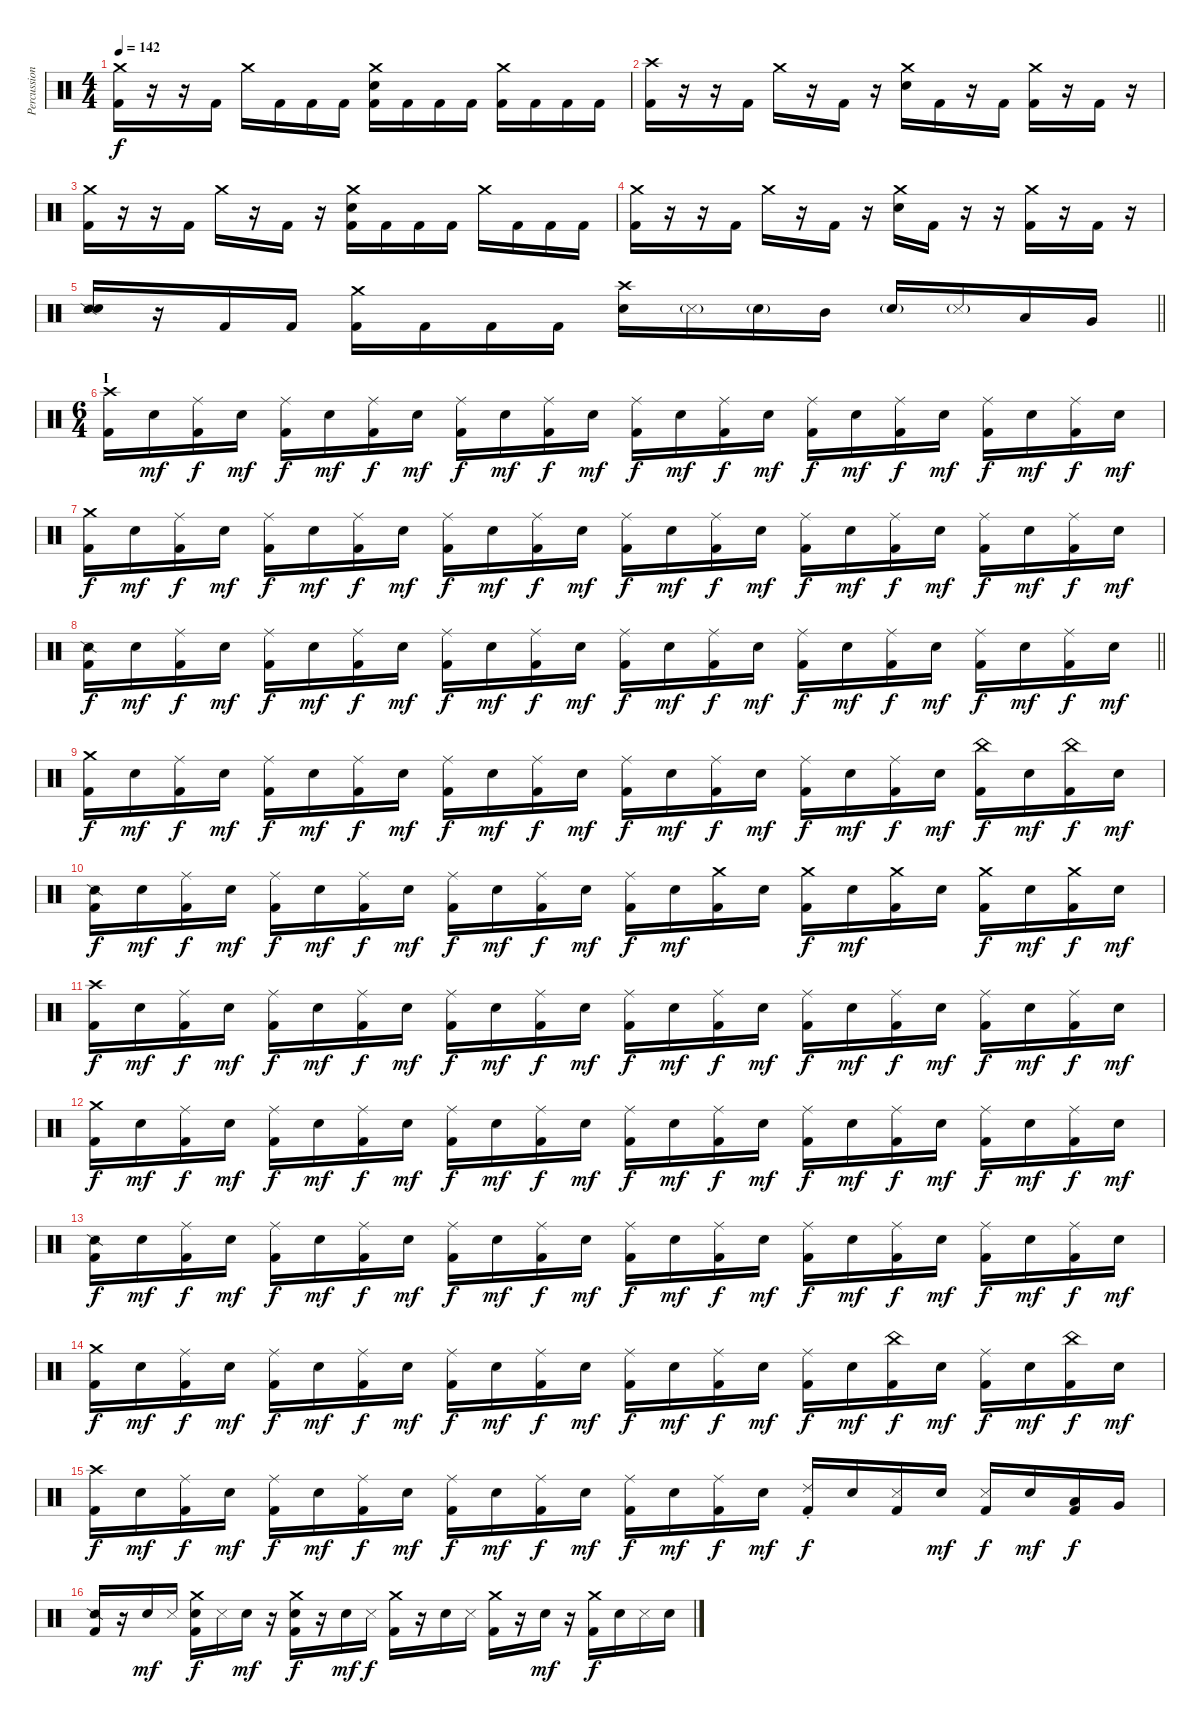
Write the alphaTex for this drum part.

\track ("Percussion" "Percussion") {instrument percussion}
\staff {score}
\articulation defaults
\ts (4 4)
\tempo 142
\clef neutral
\ks c
("Crash medium (hit)" "Kick (hit) 2").16{dy f} r.16 r.16 "Kick (hit) 2".16 "Crash medium (hit)".16 "Kick (hit) 2".16 "Kick (hit) 2".16 "Kick (hit) 2".16 ("Crash medium (hit)" "Snare (hit) 2" "Kick (hit) 2").16 "Kick (hit) 2".16 "Kick (hit) 2".16 "Kick (hit) 2".16 ("Crash medium (hit)" "Kick (hit) 2").16 "Kick (hit) 2".16 "Kick (hit) 2".16 "Kick (hit) 2".16 |
("Crash high (hit)" "Kick (hit) 2").16 r.16 r.16 "Kick (hit) 2".16 "Crash medium (hit)".16 r.16 "Kick (hit) 2".16 r.16 ("Crash medium (hit)" "Snare (hit) 2").16 "Kick (hit) 2".16 r.16 "Kick (hit) 2".16 ("Crash medium (hit)" "Kick (hit) 2").16 r.16 "Kick (hit) 2".16 r.16 |
("Crash medium (hit)" "Kick (hit) 2").16 r.16 r.16 "Kick (hit) 2".16 "Crash medium (hit)".16 r.16 "Kick (hit) 2".16 r.16 ("Crash medium (hit)" "Snare (hit) 2" "Kick (hit) 2").16 "Kick (hit) 2".16 "Kick (hit) 2".16 "Kick (hit) 2".16 "Crash medium (hit)".16 "Kick (hit) 2".16 "Kick (hit) 2".16 "Kick (hit) 2".16 |
("Crash medium (hit)" "Kick (hit) 2").16 r.16 r.16 "Kick (hit) 2".16 "Crash medium (hit)".16 r.16 "Kick (hit) 2".16 r.16 ("Crash medium (hit)" "Snare (hit) 2").16 "Kick (hit) 2".16 r.16 r.16 ("Crash medium (hit)" "Kick (hit) 2").16 r.16 "Kick (hit) 2".16 r.16 |
\barLineRight lightlight
("Snare (side stick) 2" "Snare (hit) 2").16 r.16 "Kick (hit) 2".16 "Kick (hit) 2".16 ("Crash medium (hit)" "Kick (hit) 2").16 "Kick (hit) 2".16 "Kick (hit) 2".16 "Kick (hit) 2".16 ("Crash high (hit)" "Snare (hit) 2").16 "Metronome (hit)"{g}.16 "Snare (hit) 2"{g}.16 "Mid Tom (hit)".16 "Snare (hit) 2"{g}.16 "Metronome (hit)"{g}.16 "Low Tom (hit)".16 "Very Low Tom (hit)".16 |
\ts (6 4)
\section ("" "I")
("Crash high (hit)" "Kick (hit) 2").16 "Snare (hit) 2".16{dy mf} ("Ride (middle)" "Kick (hit) 2").16{dy f} "Snare (hit) 2".16{dy mf} ("Ride (middle)" "Kick (hit) 2").16{dy f} "Snare (hit) 2".16{dy mf} ("Ride (middle)" "Kick (hit) 2").16{dy f} "Snare (hit) 2".16{dy mf} ("Ride (middle)" "Kick (hit) 2").16{dy f} "Snare (hit) 2".16{dy mf} ("Ride (middle)" "Kick (hit) 2").16{dy f} "Snare (hit) 2".16{dy mf} ("Ride (middle)" "Kick (hit) 2").16{dy f} "Snare (hit) 2".16{dy mf} ("Ride (middle)" "Kick (hit) 2").16{dy f} "Snare (hit) 2".16{dy mf} ("Ride (middle)" "Kick (hit) 2").16{dy f} "Snare (hit) 2".16{dy mf} ("Ride (middle)" "Kick (hit) 2").16{dy f} "Snare (hit) 2".16{dy mf} ("Ride (middle)" "Kick (hit) 2").16{dy f} "Snare (hit) 2".16{dy mf} ("Ride (middle)" "Kick (hit) 2").16{dy f} "Snare (hit) 2".16{dy mf} |
("Crash medium (hit)" "Kick (hit) 2").16{dy f} "Snare (hit) 2".16{dy mf} ("Ride (middle)" "Kick (hit) 2").16{dy f} "Snare (hit) 2".16{dy mf} ("Ride (middle)" "Kick (hit) 2").16{dy f} "Snare (hit) 2".16{dy mf} ("Ride (middle)" "Kick (hit) 2").16{dy f} "Snare (hit) 2".16{dy mf} ("Ride (middle)" "Kick (hit) 2").16{dy f} "Snare (hit) 2".16{dy mf} ("Ride (middle)" "Kick (hit) 2").16{dy f} "Snare (hit) 2".16{dy mf} ("Ride (middle)" "Kick (hit) 2").16{dy f} "Snare (hit) 2".16{dy mf} ("Ride (middle)" "Kick (hit) 2").16{dy f} "Snare (hit) 2".16{dy mf} ("Ride (middle)" "Kick (hit) 2").16{dy f} "Snare (hit) 2".16{dy mf} ("Ride (middle)" "Kick (hit) 2").16{dy f} "Snare (hit) 2".16{dy mf} ("Ride (middle)" "Kick (hit) 2").16{dy f} "Snare (hit) 2".16{dy mf} ("Ride (middle)" "Kick (hit) 2").16{dy f} "Snare (hit) 2".16{dy mf} |
\barLineRight lightlight
("Snare (side stick) 2" "Kick (hit) 2").16{dy f} "Snare (hit) 2".16{dy mf} ("Ride (middle)" "Kick (hit) 2").16{dy f} "Snare (hit) 2".16{dy mf} ("Ride (middle)" "Kick (hit) 2").16{dy f} "Snare (hit) 2".16{dy mf} ("Ride (middle)" "Kick (hit) 2").16{dy f} "Snare (hit) 2".16{dy mf} ("Ride (middle)" "Kick (hit) 2").16{dy f} "Snare (hit) 2".16{dy mf} ("Ride (middle)" "Kick (hit) 2").16{dy f} "Snare (hit) 2".16{dy mf} ("Ride (middle)" "Kick (hit) 2").16{dy f} "Snare (hit) 2".16{dy mf} ("Ride (middle)" "Kick (hit) 2").16{dy f} "Snare (hit) 2".16{dy mf} ("Ride (middle)" "Kick (hit) 2").16{dy f} "Snare (hit) 2".16{dy mf} ("Ride (middle)" "Kick (hit) 2").16{dy f} "Snare (hit) 2".16{dy mf} ("Ride (middle)" "Kick (hit) 2").16{dy f} "Snare (hit) 2".16{dy mf} ("Ride (middle)" "Kick (hit) 2").16{dy f} "Snare (hit) 2".16{dy mf} |
("Crash medium (hit)" "Kick (hit) 2").16{dy f} "Snare (hit) 2".16{dy mf} ("Ride (middle)" "Kick (hit) 2").16{dy f} "Snare (hit) 2".16{dy mf} ("Ride (middle)" "Kick (hit) 2").16{dy f} "Snare (hit) 2".16{dy mf} ("Ride (middle)" "Kick (hit) 2").16{dy f} "Snare (hit) 2".16{dy mf} ("Ride (middle)" "Kick (hit) 2").16{dy f} "Snare (hit) 2".16{dy mf} ("Ride (middle)" "Kick (hit) 2").16{dy f} "Snare (hit) 2".16{dy mf} ("Ride (middle)" "Kick (hit) 2").16{dy f} "Snare (hit) 2".16{dy mf} ("Ride (middle)" "Kick (hit) 2").16{dy f} "Snare (hit) 2".16{dy mf} ("Ride (middle)" "Kick (hit) 2").16{dy f} "Snare (hit) 2".16{dy mf} ("Ride (middle)" "Kick (hit) 2").16{dy f} "Snare (hit) 2".16{dy mf} ("China (hit)" "Kick (hit) 2").16{dy f} "Snare (hit) 2".16{dy mf} ("China (hit)" "Kick (hit) 2").16{dy f} "Snare (hit) 2".16{dy mf} |
("Snare (side stick) 2" "Kick (hit) 2").16{dy f} "Snare (hit) 2".16{dy mf} ("Ride (middle)" "Kick (hit) 2").16{dy f} "Snare (hit) 2".16{dy mf} ("Ride (middle)" "Kick (hit) 2").16{dy f} "Snare (hit) 2".16{dy mf} ("Ride (middle)" "Kick (hit) 2").16{dy f} "Snare (hit) 2".16{dy mf} ("Ride (middle)" "Kick (hit) 2").16{dy f} "Snare (hit) 2".16{dy mf} ("Ride (middle)" "Kick (hit) 2").16{dy f} "Snare (hit) 2".16{dy mf} ("Ride (middle)" "Kick (hit) 2").16{dy f} "Snare (hit) 2".16{dy mf} ("Crash medium (hit)" "Kick (hit) 2").16 "Snare (hit) 2".16 ("Crash medium (hit)" "Kick (hit) 2").16{dy f} "Snare (hit) 2".16{dy mf} ("Crash medium (hit)" "Kick (hit) 2").16 "Snare (hit) 2".16 ("Crash medium (hit)" "Kick (hit) 2").16{dy f} "Snare (hit) 2".16{dy mf} ("Crash medium (hit)" "Kick (hit) 2").16{dy f} "Snare (hit) 2".16{dy mf} |
("Crash high (hit)" "Kick (hit) 2").16{dy f} "Snare (hit) 2".16{dy mf} ("Ride (middle)" "Kick (hit) 2").16{dy f} "Snare (hit) 2".16{dy mf} ("Ride (middle)" "Kick (hit) 2").16{dy f} "Snare (hit) 2".16{dy mf} ("Ride (middle)" "Kick (hit) 2").16{dy f} "Snare (hit) 2".16{dy mf} ("Ride (middle)" "Kick (hit) 2").16{dy f} "Snare (hit) 2".16{dy mf} ("Ride (middle)" "Kick (hit) 2").16{dy f} "Snare (hit) 2".16{dy mf} ("Ride (middle)" "Kick (hit) 2").16{dy f} "Snare (hit) 2".16{dy mf} ("Ride (middle)" "Kick (hit) 2").16{dy f} "Snare (hit) 2".16{dy mf} ("Ride (middle)" "Kick (hit) 2").16{dy f} "Snare (hit) 2".16{dy mf} ("Ride (middle)" "Kick (hit) 2").16{dy f} "Snare (hit) 2".16{dy mf} ("Ride (middle)" "Kick (hit) 2").16{dy f} "Snare (hit) 2".16{dy mf} ("Ride (middle)" "Kick (hit) 2").16{dy f} "Snare (hit) 2".16{dy mf} |
("Crash medium (hit)" "Kick (hit) 2").16{dy f} "Snare (hit) 2".16{dy mf} ("Ride (middle)" "Kick (hit) 2").16{dy f} "Snare (hit) 2".16{dy mf} ("Ride (middle)" "Kick (hit) 2").16{dy f} "Snare (hit) 2".16{dy mf} ("Ride (middle)" "Kick (hit) 2").16{dy f} "Snare (hit) 2".16{dy mf} ("Ride (middle)" "Kick (hit) 2").16{dy f} "Snare (hit) 2".16{dy mf} ("Ride (middle)" "Kick (hit) 2").16{dy f} "Snare (hit) 2".16{dy mf} ("Ride (middle)" "Kick (hit) 2").16{dy f} "Snare (hit) 2".16{dy mf} ("Ride (middle)" "Kick (hit) 2").16{dy f} "Snare (hit) 2".16{dy mf} ("Ride (middle)" "Kick (hit) 2").16{dy f} "Snare (hit) 2".16{dy mf} ("Ride (middle)" "Kick (hit) 2").16{dy f} "Snare (hit) 2".16{dy mf} ("Ride (middle)" "Kick (hit) 2").16{dy f} "Snare (hit) 2".16{dy mf} ("Ride (middle)" "Kick (hit) 2").16{dy f} "Snare (hit) 2".16{dy mf} |
("Snare (side stick) 2" "Kick (hit) 2").16{dy f} "Snare (hit) 2".16{dy mf} ("Ride (middle)" "Kick (hit) 2").16{dy f} "Snare (hit) 2".16{dy mf} ("Ride (middle)" "Kick (hit) 2").16{dy f} "Snare (hit) 2".16{dy mf} ("Ride (middle)" "Kick (hit) 2").16{dy f} "Snare (hit) 2".16{dy mf} ("Ride (middle)" "Kick (hit) 2").16{dy f} "Snare (hit) 2".16{dy mf} ("Ride (middle)" "Kick (hit) 2").16{dy f} "Snare (hit) 2".16{dy mf} ("Ride (middle)" "Kick (hit) 2").16{dy f} "Snare (hit) 2".16{dy mf} ("Ride (middle)" "Kick (hit) 2").16{dy f} "Snare (hit) 2".16{dy mf} ("Ride (middle)" "Kick (hit) 2").16{dy f} "Snare (hit) 2".16{dy mf} ("Ride (middle)" "Kick (hit) 2").16{dy f} "Snare (hit) 2".16{dy mf} ("Ride (middle)" "Kick (hit) 2").16{dy f} "Snare (hit) 2".16{dy mf} ("Ride (middle)" "Kick (hit) 2").16{dy f} "Snare (hit) 2".16{dy mf} |
("Crash medium (hit)" "Kick (hit) 2").16{dy f} "Snare (hit) 2".16{dy mf} ("Ride (middle)" "Kick (hit) 2").16{dy f} "Snare (hit) 2".16{dy mf} ("Ride (middle)" "Kick (hit) 2").16{dy f} "Snare (hit) 2".16{dy mf} ("Ride (middle)" "Kick (hit) 2").16{dy f} "Snare (hit) 2".16{dy mf} ("Ride (middle)" "Kick (hit) 2").16{dy f} "Snare (hit) 2".16{dy mf} ("Ride (middle)" "Kick (hit) 2").16{dy f} "Snare (hit) 2".16{dy mf} ("Ride (middle)" "Kick (hit) 2").16{dy f} "Snare (hit) 2".16{dy mf} ("Ride (middle)" "Kick (hit) 2").16{dy f} "Snare (hit) 2".16{dy mf} ("Ride (middle)" "Kick (hit) 2").16{dy f} "Snare (hit) 2".16{dy mf} ("China (hit)" "Kick (hit) 2").16{dy f} "Snare (hit) 2".16{dy mf} ("Ride (middle)" "Kick (hit) 2").16{dy f} "Snare (hit) 2".16{dy mf} ("China (hit)" "Kick (hit) 2").16{dy f} "Snare (hit) 2".16{dy mf} |
("Crash high (hit)" "Kick (hit) 2").16{dy f} "Snare (hit) 2".16{dy mf} ("Ride (middle)" "Kick (hit) 2").16{dy f} "Snare (hit) 2".16{dy mf} ("Ride (middle)" "Kick (hit) 2").16{dy f} "Snare (hit) 2".16{dy mf} ("Ride (middle)" "Kick (hit) 2").16{dy f} "Snare (hit) 2".16{dy mf} ("Ride (middle)" "Kick (hit) 2").16{dy f} "Snare (hit) 2".16{dy mf} ("Ride (middle)" "Kick (hit) 2").16{dy f} "Snare (hit) 2".16{dy mf} ("Ride (middle)" "Kick (hit) 2").16{dy f} "Snare (hit) 2".16{dy mf} ("Ride (middle)" "Kick (hit) 2").16{dy f} "Snare (hit) 2".16{dy mf} ("Ride (choke) 2" "Kick (hit) 2").16{dy f} "Snare (hit) 2".16 ("Metronome (hit)" "Kick (hit) 2").16 "Snare (hit) 2".16{dy mf} ("Metronome (hit)" "Kick (hit) 2").16{dy f} "Snare (hit) 2".16{dy mf} ("Low Tom (hit)" "Kick (hit) 2").16{dy f} "Very Low Tom (hit)".16 |
("Snare (side stick) 2" "Kick (hit) 2").16 r.16 "Snare (hit) 2".16{dy mf} "Metronome (hit)".16 ("Crash medium (hit)" "Snare (hit) 2" "Kick (hit) 2").16{dy f} "Metronome (hit)".16 "Snare (hit) 2".16{dy mf} r.16 ("Crash medium (hit)" "Snare (hit) 2" "Kick (hit) 2").16{dy f} r.16 "Snare (hit) 2".16{dy mf} "Metronome (hit)".16{dy f} ("Crash medium (hit)" "Kick (hit) 2").16 r.16 "Snare (hit) 2".16 "Metronome (hit)".16 ("Crash medium (hit)" "Kick (hit) 2").16 r.16 "Snare (hit) 2".16{dy mf} r.16 ("Crash medium (hit)" "Kick (hit) 2").16{dy f} "Snare (hit) 2".16 "Metronome (hit)".16 "Snare (hit) 2".16
